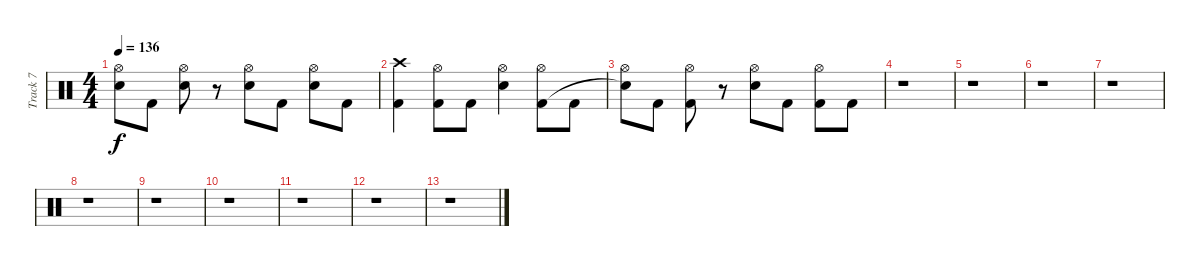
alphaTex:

\track ("Track 7" "Track 7") {instrument percussion}
\staff {score}
\articulation defaults
\ts (4 4)
\tempo 136
\clef neutral
\ks c
("Hi-Hat (open)" "Electric Snare (hit)"{t}).8{dy f} "Kick (hit) 2".8 ("Hi-Hat (open)" "Electric Snare (hit)").8 r.8 ("Hi-Hat (open)" "Electric Snare (hit)").8 "Kick (hit) 2".8 ("Hi-Hat (open)" "Electric Snare (hit)").8 "Kick (hit) 2".8 |
("Crash high (hit)" "Kick (hit) 2").4 ("Hi-Hat (open)" "Kick (hit) 2").8 "Kick (hit) 2".8 ("Hi-Hat (open)" "Electric Snare (hit)").4 ("Hi-Hat (open)" "Kick (hit) 2").8 "Kick (hit) 2".8 |
("Hi-Hat (open)" "Electric Snare (hit)"{t}).8 "Kick (hit) 2".8 ("Hi-Hat (open)" "Kick (hit) 2").8 r.8 ("Hi-Hat (open)" "Electric Snare (hit)").8 "Kick (hit) 2".8 ("Hi-Hat (open)" "Kick (hit) 2").8 "Kick (hit) 2".8 |
r.1 |
r.1 |
r.1 |
r.1 |
r.1 |
r.1 |
r.1 |
r.1 |
r.1 |
r.1
